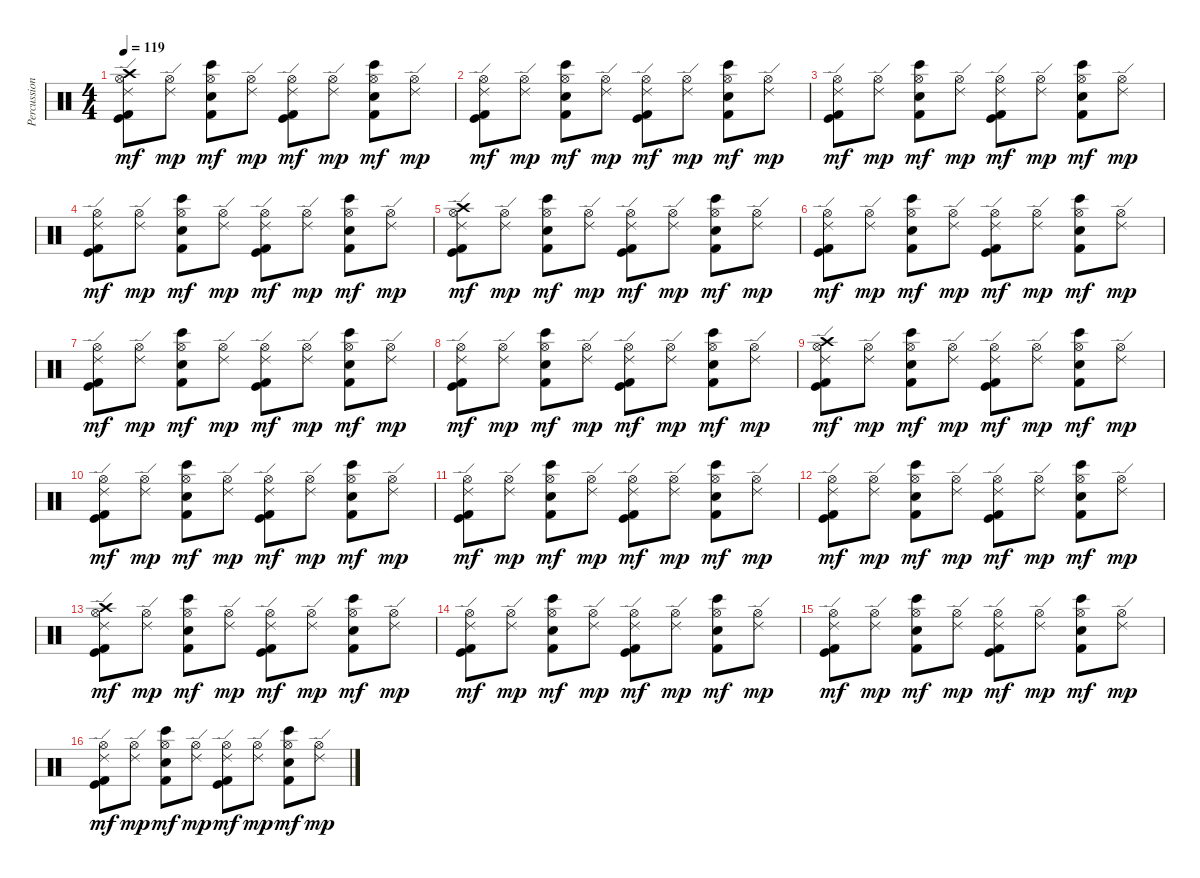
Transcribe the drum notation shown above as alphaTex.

\track ("Percussion" "Percussion") {instrument percussion}
\staff {score}
\articulation defaults
\ts (4 4)
\tempo 119
\clef neutral
\ks c
("Crash high (hit)" "Ride (edge) 2" "Hi-Hat (open)" "Kick (hit)" "Kick (hit) 2").8{dy mf} ("Ride (edge) 2" "Hi-Hat (open)").8{dy mp} ("Bongo High (hit)" "Hi-Hat (open)" "Hand Clap (hit)" "Kick (hit) 2").8{dy mf} ("Ride (edge) 2" "Hi-Hat (open)").8{dy mp} ("Ride (edge) 2" "Hi-Hat (open)" "Kick (hit)" "Kick (hit) 2").8{dy mf} ("Ride (edge) 2" "Hi-Hat (open)").8{dy mp} ("Bongo High (hit)" "Hi-Hat (open)" "Hand Clap (hit)" "Kick (hit) 2").8{dy mf} ("Ride (edge) 2" "Hi-Hat (open)").8{dy mp} |
("Ride (edge) 2" "Hi-Hat (open)" "Kick (hit)" "Kick (hit) 2").8{dy mf} ("Ride (edge) 2" "Hi-Hat (open)").8{dy mp} ("Bongo High (hit)" "Hi-Hat (open)" "Hand Clap (hit)" "Kick (hit) 2").8{dy mf} ("Ride (edge) 2" "Hi-Hat (open)").8{dy mp} ("Ride (edge) 2" "Hi-Hat (open)" "Kick (hit)" "Kick (hit) 2").8{dy mf} ("Ride (edge) 2" "Hi-Hat (open)").8{dy mp} ("Bongo High (hit)" "Hi-Hat (open)" "Hand Clap (hit)" "Kick (hit) 2").8{dy mf} ("Ride (edge) 2" "Hi-Hat (open)").8{dy mp} |
("Ride (edge) 2" "Hi-Hat (open)" "Kick (hit)" "Kick (hit) 2").8{dy mf} ("Ride (edge) 2" "Hi-Hat (open)").8{dy mp} ("Bongo High (hit)" "Hi-Hat (open)" "Hand Clap (hit)" "Kick (hit) 2").8{dy mf} ("Ride (edge) 2" "Hi-Hat (open)").8{dy mp} ("Ride (edge) 2" "Hi-Hat (open)" "Kick (hit)" "Kick (hit) 2").8{dy mf} ("Ride (edge) 2" "Hi-Hat (open)").8{dy mp} ("Bongo High (hit)" "Hi-Hat (open)" "Hand Clap (hit)" "Kick (hit) 2").8{dy mf} ("Ride (edge) 2" "Hi-Hat (open)").8{dy mp} |
("Ride (edge) 2" "Hi-Hat (open)" "Kick (hit)" "Kick (hit) 2").8{dy mf} ("Ride (edge) 2" "Hi-Hat (open)").8{dy mp} ("Bongo High (hit)" "Hi-Hat (open)" "Hand Clap (hit)" "Kick (hit) 2").8{dy mf} ("Ride (edge) 2" "Hi-Hat (open)").8{dy mp} ("Ride (edge) 2" "Hi-Hat (open)" "Kick (hit)" "Kick (hit) 2").8{dy mf} ("Ride (edge) 2" "Hi-Hat (open)").8{dy mp} ("Bongo High (hit)" "Hi-Hat (open)" "Hand Clap (hit)" "Kick (hit) 2").8{dy mf} ("Ride (edge) 2" "Hi-Hat (open)").8{dy mp} |
("Crash high (hit)" "Ride (edge) 2" "Hi-Hat (open)" "Kick (hit)" "Kick (hit) 2").8{dy mf} ("Ride (edge) 2" "Hi-Hat (open)").8{dy mp} ("Bongo High (hit)" "Hi-Hat (open)" "Hand Clap (hit)" "Kick (hit) 2").8{dy mf} ("Ride (edge) 2" "Hi-Hat (open)").8{dy mp} ("Ride (edge) 2" "Hi-Hat (open)" "Kick (hit)" "Kick (hit) 2").8{dy mf} ("Ride (edge) 2" "Hi-Hat (open)").8{dy mp} ("Bongo High (hit)" "Hi-Hat (open)" "Hand Clap (hit)" "Kick (hit) 2").8{dy mf} ("Ride (edge) 2" "Hi-Hat (open)").8{dy mp} |
("Ride (edge) 2" "Hi-Hat (open)" "Kick (hit)" "Kick (hit) 2").8{dy mf} ("Ride (edge) 2" "Hi-Hat (open)").8{dy mp} ("Bongo High (hit)" "Hi-Hat (open)" "Hand Clap (hit)" "Kick (hit) 2").8{dy mf} ("Ride (edge) 2" "Hi-Hat (open)").8{dy mp} ("Ride (edge) 2" "Hi-Hat (open)" "Kick (hit)" "Kick (hit) 2").8{dy mf} ("Ride (edge) 2" "Hi-Hat (open)").8{dy mp} ("Bongo High (hit)" "Hi-Hat (open)" "Hand Clap (hit)" "Kick (hit) 2").8{dy mf} ("Ride (edge) 2" "Hi-Hat (open)").8{dy mp} |
("Ride (edge) 2" "Hi-Hat (open)" "Kick (hit)" "Kick (hit) 2").8{dy mf} ("Ride (edge) 2" "Hi-Hat (open)").8{dy mp} ("Bongo High (hit)" "Hi-Hat (open)" "Hand Clap (hit)" "Kick (hit) 2").8{dy mf} ("Ride (edge) 2" "Hi-Hat (open)").8{dy mp} ("Ride (edge) 2" "Hi-Hat (open)" "Kick (hit)" "Kick (hit) 2").8{dy mf} ("Ride (edge) 2" "Hi-Hat (open)").8{dy mp} ("Bongo High (hit)" "Hi-Hat (open)" "Hand Clap (hit)" "Kick (hit) 2").8{dy mf} ("Ride (edge) 2" "Hi-Hat (open)").8{dy mp} |
("Ride (edge) 2" "Hi-Hat (open)" "Kick (hit)" "Kick (hit) 2").8{dy mf} ("Ride (edge) 2" "Hi-Hat (open)").8{dy mp} ("Bongo High (hit)" "Hi-Hat (open)" "Hand Clap (hit)" "Kick (hit) 2").8{dy mf} ("Ride (edge) 2" "Hi-Hat (open)").8{dy mp} ("Ride (edge) 2" "Hi-Hat (open)" "Kick (hit)" "Kick (hit) 2").8{dy mf} ("Ride (edge) 2" "Hi-Hat (open)").8{dy mp} ("Bongo High (hit)" "Hi-Hat (open)" "Hand Clap (hit)" "Kick (hit) 2").8{dy mf} ("Ride (edge) 2" "Hi-Hat (open)").8{dy mp} |
("Crash high (hit)" "Ride (edge) 2" "Hi-Hat (open)" "Kick (hit)" "Kick (hit) 2").8{dy mf} ("Ride (edge) 2" "Hi-Hat (open)").8{dy mp} ("Bongo High (hit)" "Hi-Hat (open)" "Hand Clap (hit)" "Kick (hit) 2").8{dy mf} ("Ride (edge) 2" "Hi-Hat (open)").8{dy mp} ("Ride (edge) 2" "Hi-Hat (open)" "Kick (hit)" "Kick (hit) 2").8{dy mf} ("Ride (edge) 2" "Hi-Hat (open)").8{dy mp} ("Bongo High (hit)" "Hi-Hat (open)" "Hand Clap (hit)" "Kick (hit) 2").8{dy mf} ("Ride (edge) 2" "Hi-Hat (open)").8{dy mp} |
("Ride (edge) 2" "Hi-Hat (open)" "Kick (hit)" "Kick (hit) 2").8{dy mf} ("Ride (edge) 2" "Hi-Hat (open)").8{dy mp} ("Bongo High (hit)" "Hi-Hat (open)" "Hand Clap (hit)" "Kick (hit) 2").8{dy mf} ("Ride (edge) 2" "Hi-Hat (open)").8{dy mp} ("Ride (edge) 2" "Hi-Hat (open)" "Kick (hit)" "Kick (hit) 2").8{dy mf} ("Ride (edge) 2" "Hi-Hat (open)").8{dy mp} ("Bongo High (hit)" "Hi-Hat (open)" "Hand Clap (hit)" "Kick (hit) 2").8{dy mf} ("Ride (edge) 2" "Hi-Hat (open)").8{dy mp} |
("Ride (edge) 2" "Hi-Hat (open)" "Kick (hit)" "Kick (hit) 2").8{dy mf} ("Ride (edge) 2" "Hi-Hat (open)").8{dy mp} ("Bongo High (hit)" "Hi-Hat (open)" "Hand Clap (hit)" "Kick (hit) 2").8{dy mf} ("Ride (edge) 2" "Hi-Hat (open)").8{dy mp} ("Ride (edge) 2" "Hi-Hat (open)" "Kick (hit)" "Kick (hit) 2").8{dy mf} ("Ride (edge) 2" "Hi-Hat (open)").8{dy mp} ("Bongo High (hit)" "Hi-Hat (open)" "Hand Clap (hit)" "Kick (hit) 2").8{dy mf} ("Ride (edge) 2" "Hi-Hat (open)").8{dy mp} |
("Ride (edge) 2" "Hi-Hat (open)" "Kick (hit)" "Kick (hit) 2").8{dy mf} ("Ride (edge) 2" "Hi-Hat (open)").8{dy mp} ("Bongo High (hit)" "Hi-Hat (open)" "Hand Clap (hit)" "Kick (hit) 2").8{dy mf} ("Ride (edge) 2" "Hi-Hat (open)").8{dy mp} ("Ride (edge) 2" "Hi-Hat (open)" "Kick (hit)" "Kick (hit) 2").8{dy mf} ("Ride (edge) 2" "Hi-Hat (open)").8{dy mp} ("Bongo High (hit)" "Hi-Hat (open)" "Hand Clap (hit)" "Kick (hit) 2").8{dy mf} ("Ride (edge) 2" "Hi-Hat (open)").8{dy mp} |
("Crash high (hit)" "Ride (edge) 2" "Hi-Hat (open)" "Kick (hit)" "Kick (hit) 2").8{dy mf} ("Ride (edge) 2" "Hi-Hat (open)").8{dy mp} ("Bongo High (hit)" "Hi-Hat (open)" "Hand Clap (hit)" "Kick (hit) 2").8{dy mf} ("Ride (edge) 2" "Hi-Hat (open)").8{dy mp} ("Ride (edge) 2" "Hi-Hat (open)" "Kick (hit)" "Kick (hit) 2").8{dy mf} ("Ride (edge) 2" "Hi-Hat (open)").8{dy mp} ("Bongo High (hit)" "Hi-Hat (open)" "Hand Clap (hit)" "Kick (hit) 2").8{dy mf} ("Ride (edge) 2" "Hi-Hat (open)").8{dy mp} |
("Ride (edge) 2" "Hi-Hat (open)" "Kick (hit)" "Kick (hit) 2").8{dy mf} ("Ride (edge) 2" "Hi-Hat (open)").8{dy mp} ("Bongo High (hit)" "Hi-Hat (open)" "Hand Clap (hit)" "Kick (hit) 2").8{dy mf} ("Ride (edge) 2" "Hi-Hat (open)").8{dy mp} ("Ride (edge) 2" "Hi-Hat (open)" "Kick (hit)" "Kick (hit) 2").8{dy mf} ("Ride (edge) 2" "Hi-Hat (open)").8{dy mp} ("Bongo High (hit)" "Hi-Hat (open)" "Hand Clap (hit)" "Kick (hit) 2").8{dy mf} ("Ride (edge) 2" "Hi-Hat (open)").8{dy mp} |
("Ride (edge) 2" "Hi-Hat (open)" "Kick (hit)" "Kick (hit) 2").8{dy mf} ("Ride (edge) 2" "Hi-Hat (open)").8{dy mp} ("Bongo High (hit)" "Hi-Hat (open)" "Hand Clap (hit)" "Kick (hit) 2").8{dy mf} ("Ride (edge) 2" "Hi-Hat (open)").8{dy mp} ("Ride (edge) 2" "Hi-Hat (open)" "Kick (hit)" "Kick (hit) 2").8{dy mf} ("Ride (edge) 2" "Hi-Hat (open)").8{dy mp} ("Bongo High (hit)" "Hi-Hat (open)" "Hand Clap (hit)" "Kick (hit) 2").8{dy mf} ("Ride (edge) 2" "Hi-Hat (open)").8{dy mp} |
("Ride (edge) 2" "Hi-Hat (open)" "Kick (hit)" "Kick (hit) 2").8{dy mf} ("Ride (edge) 2" "Hi-Hat (open)").8{dy mp} ("Bongo High (hit)" "Hi-Hat (open)" "Hand Clap (hit)" "Kick (hit) 2").8{dy mf} ("Ride (edge) 2" "Hi-Hat (open)").8{dy mp} ("Ride (edge) 2" "Hi-Hat (open)" "Kick (hit)" "Kick (hit) 2").8{dy mf} ("Ride (edge) 2" "Hi-Hat (open)").8{dy mp} ("Bongo High (hit)" "Hi-Hat (open)" "Hand Clap (hit)" "Kick (hit) 2").8{dy mf} ("Ride (edge) 2" "Hi-Hat (open)").8{dy mp}
